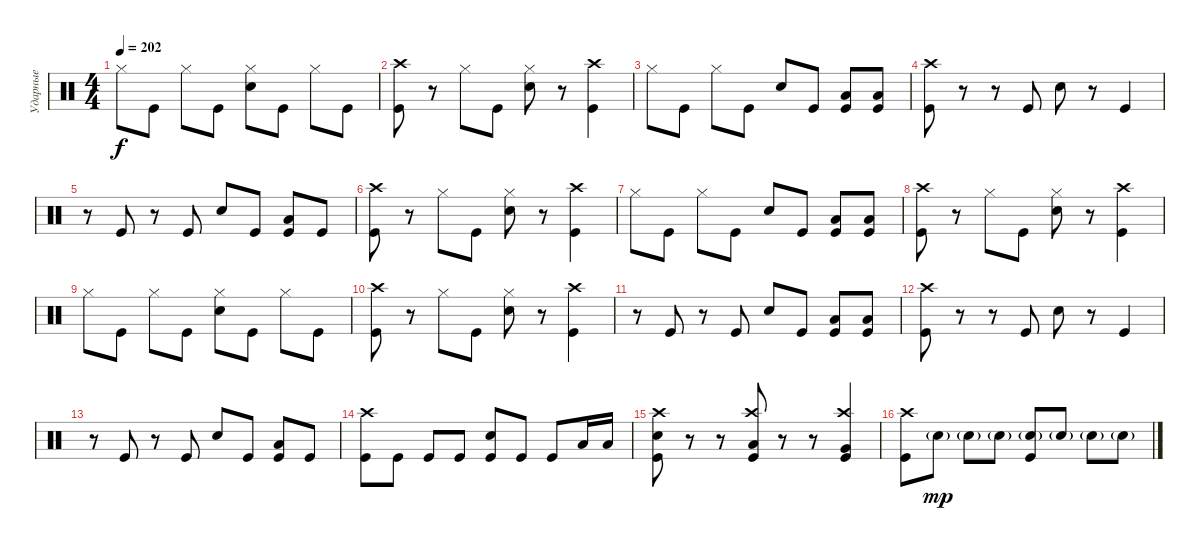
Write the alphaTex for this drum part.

\track ("Ударные" "Ударные") {instrument percussion}
\staff {score}
\articulation defaults
\ts (4 4)
\tempo 202
\clef neutral
\ks c "Hi-Hat (closed)".8{dy f} "Kick (hit)".8 "Hi-Hat (closed)".8 "Kick (hit)".8
("Hi-Hat (closed)" "Electric Snare (hit)").8 "Kick (hit)".8 "Hi-Hat (closed)".8 "Kick (hit)".8 |
("Crash high (hit)" "Kick (hit)").8 r.8 "Hi-Hat (closed)".8 "Kick (hit)".8 ("Hi-Hat (closed)" "Electric Snare (hit)").8 r.8 ("Crash high (hit)" "Kick (hit)").4 |
"Hi-Hat (closed)".8 "Kick (hit)".8 "Hi-Hat (closed)".8 "Kick (hit)".8 "Electric Snare (hit)".8 "Kick (hit)".8 ("Low Tom (hit)" "Kick (hit)").8 ("Low Tom (hit)" "Kick (hit)").8 |
("Crash high (hit)" "Kick (hit)").8 r.8 r.8 "Kick (hit)".8 "Electric Snare (hit)".8 r.8 "Kick (hit)".4 |
r.8 "Kick (hit)".8 r.8 "Kick (hit)".8 "Electric Snare (hit)".8 "Kick (hit)".8 ("Low Tom (hit)" "Kick (hit)").8 "Kick (hit)".8 |
("Crash high (hit)" "Kick (hit)").8 r.8 "Hi-Hat (closed)".8 "Kick (hit)".8 ("Hi-Hat (closed)" "Electric Snare (hit)").8 r.8 ("Crash high (hit)" "Kick (hit)").4 |
"Hi-Hat (closed)".8 "Kick (hit)".8 "Hi-Hat (closed)".8 "Kick (hit)".8 "Electric Snare (hit)".8 "Kick (hit)".8 ("Low Tom (hit)" "Kick (hit)").8 ("Low Tom (hit)" "Kick (hit)").8 |
("Crash high (hit)" "Kick (hit)").8 r.8 "Hi-Hat (closed)".8 "Kick (hit)".8 ("Hi-Hat (closed)" "Electric Snare (hit)").8 r.8 ("Crash high (hit)" "Kick (hit)").4 |
"Hi-Hat (closed)".8 "Kick (hit)".8 "Hi-Hat (closed)".8 "Kick (hit)".8 ("Hi-Hat (closed)" "Electric Snare (hit)").8 "Kick (hit)".8 "Hi-Hat (closed)".8 "Kick (hit)".8 |
("Crash high (hit)" "Kick (hit)").8 r.8 "Hi-Hat (closed)".8 "Kick (hit)".8 ("Hi-Hat (closed)" "Electric Snare (hit)").8 r.8 ("Crash high (hit)" "Kick (hit)").4 |
r.8 "Kick (hit)".8 r.8 "Kick (hit)".8 "Electric Snare (hit)".8 "Kick (hit)".8 ("Low Tom (hit)" "Kick (hit)").8 ("Low Tom (hit)" "Kick (hit)").8 |
("Crash high (hit)" "Kick (hit)").8 r.8 r.8 "Kick (hit)".8 "Electric Snare (hit)".8 r.8 "Kick (hit)".4 |
r.8 "Kick (hit)".8 r.8 "Kick (hit)".8 "Electric Snare (hit)".8 "Kick (hit)".8 ("Low Tom (hit)" "Kick (hit)").8 "Kick (hit)".8 |
("Crash high (hit)" "Kick (hit)").8 "Kick (hit)".8 "Kick (hit)".8 "Kick (hit)".8 ("Electric Snare (hit)" "Kick (hit)").8 "Kick (hit)".8 "Kick (hit)".8 "Low Tom (hit)".16 "Low Tom (hit)".16 |
("Crash high (hit)" "Electric Snare (hit)" "Kick (hit)").8 r.8 r.8 ("Crash high (hit)" "Low Tom (hit)" "Kick (hit)").8 r.8 r.8 ("Crash high (hit)" "Very Low Tom (hit)" "Kick (hit)").4 |
("Crash high (hit)" "Kick (hit)").8 "Electric Snare (hit)"{g}.8{dy mp} "Electric Snare (hit)"{g}.8 "Electric Snare (hit)"{g}.8 ("Electric Snare (hit)"{g} "Kick (hit)").8 "Electric Snare (hit)"{g}.8 "Electric Snare (hit)"{g}.8 "Electric Snare (hit)"{g}.8
